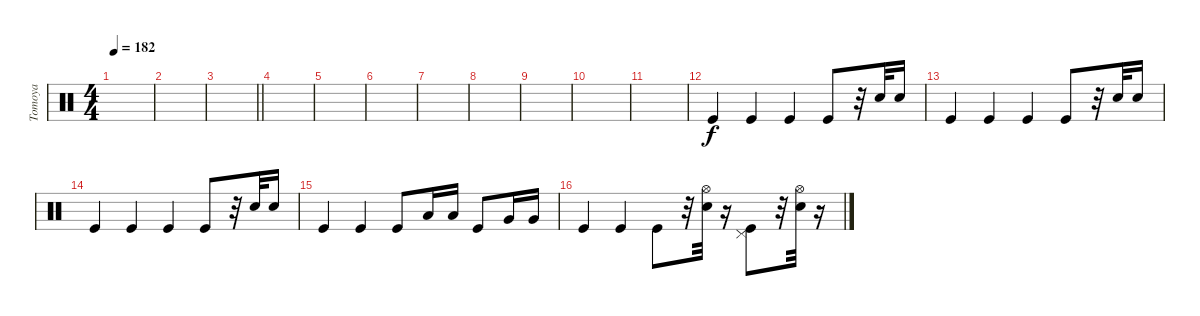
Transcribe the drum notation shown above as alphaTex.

\track ("Tomoya" "Tomoya") {instrument percussion}
\staff {score}
\articulation defaults
\ts (4 4)
\tempo 182
\clef neutral
\ks c
|
|
\barLineRight lightlight
|
\section ("" "")
|
|
|
|
|
|
|
|
"Kick (hit)".4 "Kick (hit)".4 "Kick (hit)".4 "Kick (hit)".8 r.32 "Snare (hit) 2".32 "Snare (hit) 2".16 |
"Kick (hit)".4 "Kick (hit)".4 "Kick (hit)".4 "Kick (hit)".8 r.32 "Snare (hit) 2".32 "Snare (hit) 2".16 |
"Kick (hit)".4 "Kick (hit)".4 "Kick (hit)".4 "Kick (hit)".8 r.32 "Snare (hit) 2".32 "Snare (hit) 2".16 |
"Kick (hit)".4 "Kick (hit)".4 "Kick (hit)".8 "Low Tom (hit)".16 "Low Tom (hit)".16 "Kick (hit)".8 "Very Low Tom (hit)".16 "Very Low Tom (hit)".16 |
"Kick (hit)".4 "Kick (hit)".4 "Kick (hit)".8 r.32 ("Hi-Hat (open)" "Snare (hit) 2").32 r.16 ("Pedal Hi-Hat (hit)" "Kick (hit)").8 r.32 ("Hi-Hat (open)" "Snare (hit) 2").32 r.16
